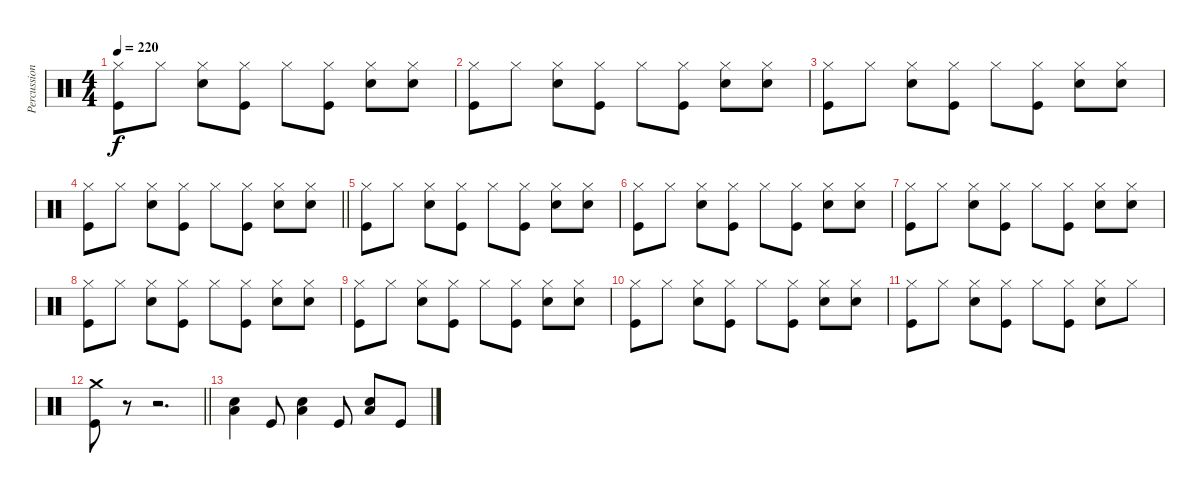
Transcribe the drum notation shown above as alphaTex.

\track ("Percussion" "Percussion") {instrument percussion}
\staff {score}
\articulation defaults
\ts (4 4)
\tempo 220
\clef neutral
\ks c
("Kick (hit)" "Hi-Hat (closed)").8{dy f} "Hi-Hat (closed)".8 ("Hi-Hat (closed)" "Snare (hit) 2").8 ("Kick (hit)" "Hi-Hat (closed)").8 "Hi-Hat (closed)".8 ("Kick (hit)" "Hi-Hat (closed)").8 ("Hi-Hat (closed)" "Snare (hit) 2").8 ("Hi-Hat (closed)" "Snare (hit) 2").8 |
("Kick (hit)" "Hi-Hat (closed)").8 "Hi-Hat (closed)".8 ("Hi-Hat (closed)" "Snare (hit) 2").8 ("Kick (hit)" "Hi-Hat (closed)").8 "Hi-Hat (closed)".8 ("Kick (hit)" "Hi-Hat (closed)").8 ("Hi-Hat (closed)" "Snare (hit) 2").8 ("Hi-Hat (closed)" "Snare (hit) 2").8 |
("Kick (hit)" "Hi-Hat (closed)").8 "Hi-Hat (closed)".8 ("Hi-Hat (closed)" "Snare (hit) 2").8 ("Kick (hit)" "Hi-Hat (closed)").8 "Hi-Hat (closed)".8 ("Kick (hit)" "Hi-Hat (closed)").8 ("Hi-Hat (closed)" "Snare (hit) 2").8 ("Hi-Hat (closed)" "Snare (hit) 2").8 |
\barLineRight lightlight
("Kick (hit)" "Hi-Hat (closed)").8 "Hi-Hat (closed)".8 ("Hi-Hat (closed)" "Snare (hit) 2").8 ("Kick (hit)" "Hi-Hat (closed)").8 "Hi-Hat (closed)".8 ("Kick (hit)" "Hi-Hat (closed)").8 ("Hi-Hat (closed)" "Snare (hit) 2").8 ("Hi-Hat (closed)" "Snare (hit) 2").8 |
("Kick (hit)" "Hi-Hat (closed)").8 "Hi-Hat (closed)".8 ("Hi-Hat (closed)" "Snare (hit) 2").8 ("Kick (hit)" "Hi-Hat (closed)").8 "Hi-Hat (closed)".8 ("Kick (hit)" "Hi-Hat (closed)").8 ("Hi-Hat (closed)" "Snare (hit) 2").8 ("Hi-Hat (closed)" "Snare (hit) 2").8 |
("Kick (hit)" "Hi-Hat (closed)").8 "Hi-Hat (closed)".8 ("Hi-Hat (closed)" "Snare (hit) 2").8 ("Kick (hit)" "Hi-Hat (closed)").8 "Hi-Hat (closed)".8 ("Kick (hit)" "Hi-Hat (closed)").8 ("Hi-Hat (closed)" "Snare (hit) 2").8 ("Hi-Hat (closed)" "Snare (hit) 2").8 |
("Kick (hit)" "Hi-Hat (closed)").8 "Hi-Hat (closed)".8 ("Hi-Hat (closed)" "Snare (hit) 2").8 ("Kick (hit)" "Hi-Hat (closed)").8 "Hi-Hat (closed)".8 ("Kick (hit)" "Hi-Hat (closed)").8 ("Hi-Hat (closed)" "Snare (hit) 2").8 ("Hi-Hat (closed)" "Snare (hit) 2").8 |
("Kick (hit)" "Hi-Hat (closed)").8 "Hi-Hat (closed)".8 ("Hi-Hat (closed)" "Snare (hit) 2").8 ("Kick (hit)" "Hi-Hat (closed)").8 "Hi-Hat (closed)".8 ("Kick (hit)" "Hi-Hat (closed)").8 ("Hi-Hat (closed)" "Snare (hit) 2").8 ("Hi-Hat (closed)" "Snare (hit) 2").8 |
("Kick (hit)" "Hi-Hat (closed)").8 "Hi-Hat (closed)".8 ("Hi-Hat (closed)" "Snare (hit) 2").8 ("Kick (hit)" "Hi-Hat (closed)").8 "Hi-Hat (closed)".8 ("Kick (hit)" "Hi-Hat (closed)").8 ("Hi-Hat (closed)" "Snare (hit) 2").8 ("Hi-Hat (closed)" "Snare (hit) 2").8 |
("Kick (hit)" "Hi-Hat (closed)").8 "Hi-Hat (closed)".8 ("Hi-Hat (closed)" "Snare (hit) 2").8 ("Kick (hit)" "Hi-Hat (closed)").8 "Hi-Hat (closed)".8 ("Kick (hit)" "Hi-Hat (closed)").8 ("Hi-Hat (closed)" "Snare (hit) 2").8 ("Hi-Hat (closed)" "Snare (hit) 2").8 |
("Kick (hit)" "Hi-Hat (closed)").8 "Hi-Hat (closed)".8 ("Hi-Hat (closed)" "Snare (hit) 2").8 ("Kick (hit)" "Hi-Hat (closed)").8 "Hi-Hat (closed)".8 ("Kick (hit)" "Hi-Hat (closed)").8 ("Hi-Hat (closed)" "Snare (hit) 2").8 "Hi-Hat (closed)".8 |
\barLineRight lightlight
("Kick (hit)" "Crash medium (hit)").8 r.8 r.2{d} |
("Low Tom (hit)" "Snare (hit) 2").4 "Kick (hit)".8 ("Low Tom (hit)" "Snare (hit) 2").4 "Kick (hit)".8 ("Low Tom (hit)" "Snare (hit) 2").8 "Kick (hit)".8
